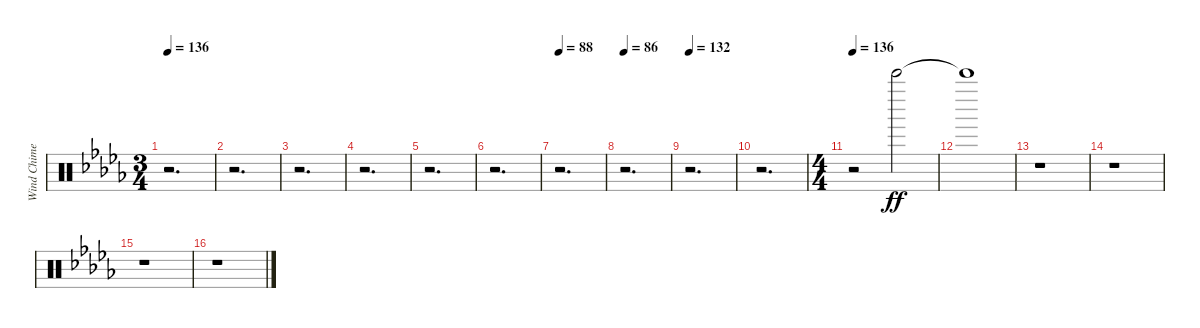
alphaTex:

\track ("Wind Chimes" "Wind Chime") {instrument percussion}
\staff {score}
\articulation defaults
\ts (3 4)
\tempo 136
\clef neutral
\ks db
r.2{d dy ff} |
r.2{d} |
r.2{d} |
r.2{d} |
r.2{d} |
r.2{d} |
\tempo 88
r.2{d} |
\tempo 86
r.2{d} |
\tempo 132
r.2{d} |
r.2{d} |
\ts (4 4)
\tempo 136
r.2 "Bell Tree (hit)".2 |
"Bell Tree (hit)"{t}.1 |
r.1 |
r.1 |
r.1 |
r.1
